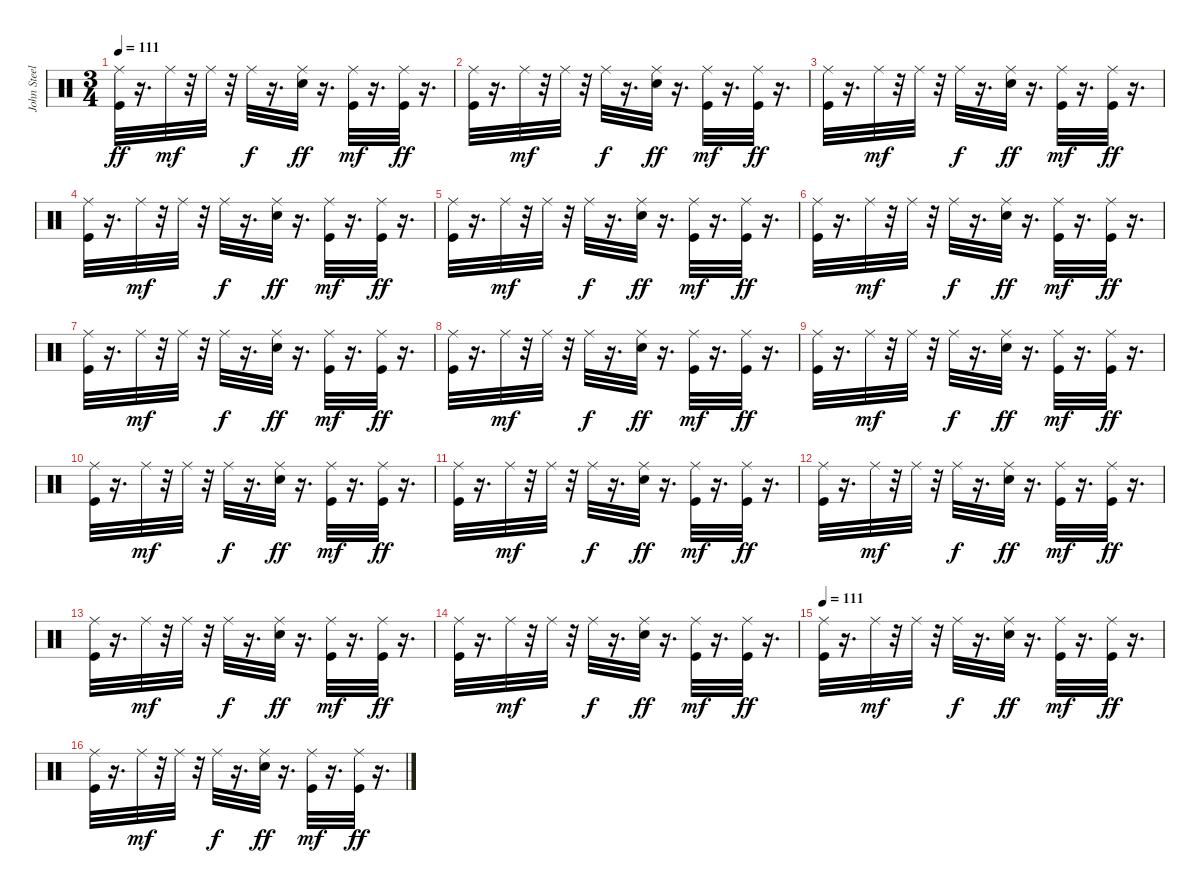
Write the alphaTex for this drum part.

\track ("John Steel" "John Steel") {instrument percussion}
\staff {score}
\articulation defaults
\ts (3 4)
\tempo 111
\clef neutral
\ks c
("Kick (hit)" "Ride (middle)").32{dy ff} r.16{d} "Ride (middle)".32{dy mf} r.32 "Ride (middle)".32 r.32 "Ride (middle)".32{dy f} r.16{d} ("Snare (hit) 2" "Ride (middle)").32{dy ff} r.16{d} ("Kick (hit)" "Ride (middle)").32{dy mf} r.16{d} ("Kick (hit)" "Ride (middle)").32{dy ff} r.16{d} |
("Kick (hit)" "Ride (middle)").32 r.16{d} "Ride (middle)".32{dy mf} r.32 "Ride (middle)".32 r.32 "Ride (middle)".32{dy f} r.16{d} ("Snare (hit) 2" "Ride (middle)").32{dy ff} r.16{d} ("Kick (hit)" "Ride (middle)").32{dy mf} r.16{d} ("Kick (hit)" "Ride (middle)").32{dy ff} r.16{d} |
("Kick (hit)" "Ride (middle)").32 r.16{d} "Ride (middle)".32{dy mf} r.32 "Ride (middle)".32 r.32 "Ride (middle)".32{dy f} r.16{d} ("Snare (hit) 2" "Ride (middle)").32{dy ff} r.16{d} ("Kick (hit)" "Ride (middle)").32{dy mf} r.16{d} ("Kick (hit)" "Ride (middle)").32{dy ff} r.16{d} |
("Kick (hit)" "Ride (middle)").32 r.16{d} "Ride (middle)".32{dy mf} r.32 "Ride (middle)".32 r.32 "Ride (middle)".32{dy f} r.16{d} ("Snare (hit) 2" "Ride (middle)").32{dy ff} r.16{d} ("Kick (hit)" "Ride (middle)").32{dy mf} r.16{d} ("Kick (hit)" "Ride (middle)").32{dy ff} r.16{d} |
("Kick (hit)" "Ride (middle)").32 r.16{d} "Ride (middle)".32{dy mf} r.32 "Ride (middle)".32 r.32 "Ride (middle)".32{dy f} r.16{d} ("Snare (hit) 2" "Ride (middle)").32{dy ff} r.16{d} ("Kick (hit)" "Ride (middle)").32{dy mf} r.16{d} ("Kick (hit)" "Ride (middle)").32{dy ff} r.16{d} |
("Kick (hit)" "Ride (middle)").32 r.16{d} "Ride (middle)".32{dy mf} r.32 "Ride (middle)".32 r.32 "Ride (middle)".32{dy f} r.16{d} ("Snare (hit) 2" "Ride (middle)").32{dy ff} r.16{d} ("Kick (hit)" "Ride (middle)").32{dy mf} r.16{d} ("Kick (hit)" "Ride (middle)").32{dy ff} r.16{d} |
("Kick (hit)" "Ride (middle)").32 r.16{d} "Ride (middle)".32{dy mf} r.32 "Ride (middle)".32 r.32 "Ride (middle)".32{dy f} r.16{d} ("Snare (hit) 2" "Ride (middle)").32{dy ff} r.16{d} ("Kick (hit)" "Ride (middle)").32{dy mf} r.16{d} ("Kick (hit)" "Ride (middle)").32{dy ff} r.16{d} |
("Kick (hit)" "Ride (middle)").32 r.16{d} "Ride (middle)".32{dy mf} r.32 "Ride (middle)".32 r.32 "Ride (middle)".32{dy f} r.16{d} ("Snare (hit) 2" "Ride (middle)").32{dy ff} r.16{d} ("Kick (hit)" "Ride (middle)").32{dy mf} r.16{d} ("Kick (hit)" "Ride (middle)").32{dy ff} r.16{d} |
("Kick (hit)" "Ride (middle)").32 r.16{d} "Ride (middle)".32{dy mf} r.32 "Ride (middle)".32 r.32 "Ride (middle)".32{dy f} r.16{d} ("Snare (hit) 2" "Ride (middle)").32{dy ff} r.16{d} ("Kick (hit)" "Ride (middle)").32{dy mf} r.16{d} ("Kick (hit)" "Ride (middle)").32{dy ff} r.16{d} |
("Kick (hit)" "Ride (middle)").32 r.16{d} "Ride (middle)".32{dy mf} r.32 "Ride (middle)".32 r.32 "Ride (middle)".32{dy f} r.16{d} ("Snare (hit) 2" "Ride (middle)").32{dy ff} r.16{d} ("Kick (hit)" "Ride (middle)").32{dy mf} r.16{d} ("Kick (hit)" "Ride (middle)").32{dy ff} r.16{d} |
("Kick (hit)" "Ride (middle)").32 r.16{d} "Ride (middle)".32{dy mf} r.32 "Ride (middle)".32 r.32 "Ride (middle)".32{dy f} r.16{d} ("Snare (hit) 2" "Ride (middle)").32{dy ff} r.16{d} ("Kick (hit)" "Ride (middle)").32{dy mf} r.16{d} ("Kick (hit)" "Ride (middle)").32{dy ff} r.16{d} |
("Kick (hit)" "Ride (middle)").32 r.16{d} "Ride (middle)".32{dy mf} r.32 "Ride (middle)".32 r.32 "Ride (middle)".32{dy f} r.16{d} ("Snare (hit) 2" "Ride (middle)").32{dy ff} r.16{d} ("Kick (hit)" "Ride (middle)").32{dy mf} r.16{d} ("Kick (hit)" "Ride (middle)").32{dy ff} r.16{d} |
("Kick (hit)" "Ride (middle)").32 r.16{d} "Ride (middle)".32{dy mf} r.32 "Ride (middle)".32 r.32 "Ride (middle)".32{dy f} r.16{d} ("Snare (hit) 2" "Ride (middle)").32{dy ff} r.16{d} ("Kick (hit)" "Ride (middle)").32{dy mf} r.16{d} ("Kick (hit)" "Ride (middle)").32{dy ff} r.16{d} |
("Kick (hit)" "Ride (middle)").32 r.16{d} "Ride (middle)".32{dy mf} r.32 "Ride (middle)".32 r.32 "Ride (middle)".32{dy f} r.16{d} ("Snare (hit) 2" "Ride (middle)").32{dy ff} r.16{d} ("Kick (hit)" "Ride (middle)").32{dy mf} r.16{d} ("Kick (hit)" "Ride (middle)").32{dy ff} r.16{d} |
\tempo 111
("Kick (hit)" "Ride (middle)").32 r.16{d} "Ride (middle)".32{dy mf} r.32 "Ride (middle)".32 r.32 "Ride (middle)".32{dy f} r.16{d} ("Snare (hit) 2" "Ride (middle)").32{dy ff} r.16{d} ("Kick (hit)" "Ride (middle)").32{dy mf} r.16{d} ("Kick (hit)" "Ride (middle)").32{dy ff} r.16{d} |
("Kick (hit)" "Ride (middle)").32 r.16{d} "Ride (middle)".32{dy mf} r.32 "Ride (middle)".32 r.32 "Ride (middle)".32{dy f} r.16{d} ("Snare (hit) 2" "Ride (middle)").32{dy ff} r.16{d} ("Kick (hit)" "Ride (middle)").32{dy mf} r.16{d} ("Kick (hit)" "Ride (middle)").32{dy ff} r.16{d}
